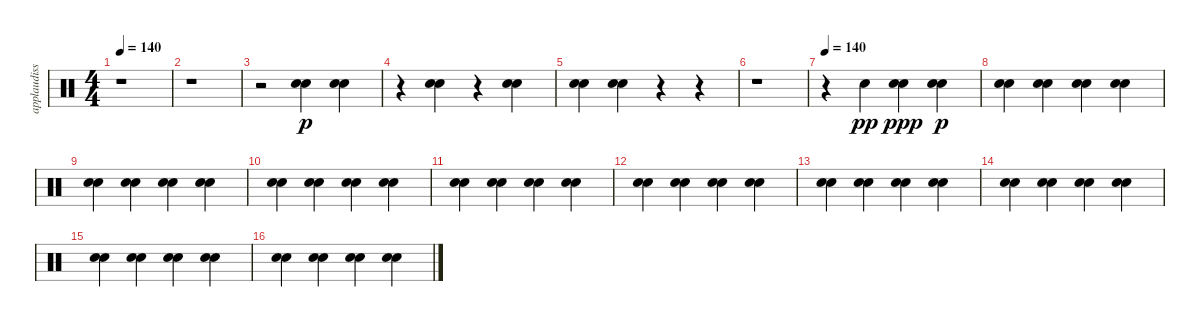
\track ("applaudissements" "applaudiss") {instrument percussion}
\staff {score}
\articulation defaults
\ts (4 4)
\tempo 140
\clef neutral
\ks c
r.1{dy p} |
r.1 |
r.2 ("Hand Clap (hit)" "Snare (hit) 2").4 ("Hand Clap (hit)" "Snare (hit) 2").4 |
r.4 ("Hand Clap (hit)" "Snare (hit) 2").4 r.4 ("Hand Clap (hit)" "Snare (hit) 2").4 |
("Snare (hit) 2" "Hand Clap (hit)").4 ("Snare (hit) 2" "Hand Clap (hit)").4 r.4 r.4 |
r.1 |
\tempo 140
r.4 "Snare (hit) 2".4{dy pp} ("Snare (hit) 2" "Hand Clap (hit)").4{dy ppp} ("Snare (hit) 2" "Hand Clap (hit)").4{dy p} |
("Snare (hit) 2" "Hand Clap (hit)").4 ("Snare (hit) 2" "Hand Clap (hit)").4 ("Snare (hit) 2" "Hand Clap (hit)").4 ("Snare (hit) 2" "Hand Clap (hit)").4 |
("Snare (hit) 2" "Hand Clap (hit)").4 ("Snare (hit) 2" "Hand Clap (hit)").4 ("Snare (hit) 2" "Hand Clap (hit)").4 ("Snare (hit) 2" "Hand Clap (hit)").4 |
("Snare (hit) 2" "Hand Clap (hit)").4 ("Snare (hit) 2" "Hand Clap (hit)").4 ("Snare (hit) 2" "Hand Clap (hit)").4 ("Snare (hit) 2" "Hand Clap (hit)").4 |
("Snare (hit) 2" "Hand Clap (hit)").4 ("Snare (hit) 2" "Hand Clap (hit)").4 ("Snare (hit) 2" "Hand Clap (hit)").4 ("Snare (hit) 2" "Hand Clap (hit)").4 |
("Snare (hit) 2" "Hand Clap (hit)").4 ("Snare (hit) 2" "Hand Clap (hit)").4 ("Snare (hit) 2" "Hand Clap (hit)").4 ("Snare (hit) 2" "Hand Clap (hit)").4 |
("Snare (hit) 2" "Hand Clap (hit)").4 ("Snare (hit) 2" "Hand Clap (hit)").4 ("Snare (hit) 2" "Hand Clap (hit)").4 ("Snare (hit) 2" "Hand Clap (hit)").4 |
("Snare (hit) 2" "Hand Clap (hit)").4 ("Snare (hit) 2" "Hand Clap (hit)").4 ("Snare (hit) 2" "Hand Clap (hit)").4 ("Snare (hit) 2" "Hand Clap (hit)").4 |
("Snare (hit) 2" "Hand Clap (hit)").4 ("Snare (hit) 2" "Hand Clap (hit)").4 ("Snare (hit) 2" "Hand Clap (hit)").4 ("Snare (hit) 2" "Hand Clap (hit)").4 |
("Snare (hit) 2" "Hand Clap (hit)").4 ("Snare (hit) 2" "Hand Clap (hit)").4 ("Snare (hit) 2" "Hand Clap (hit)").4 ("Snare (hit) 2" "Hand Clap (hit)").4
